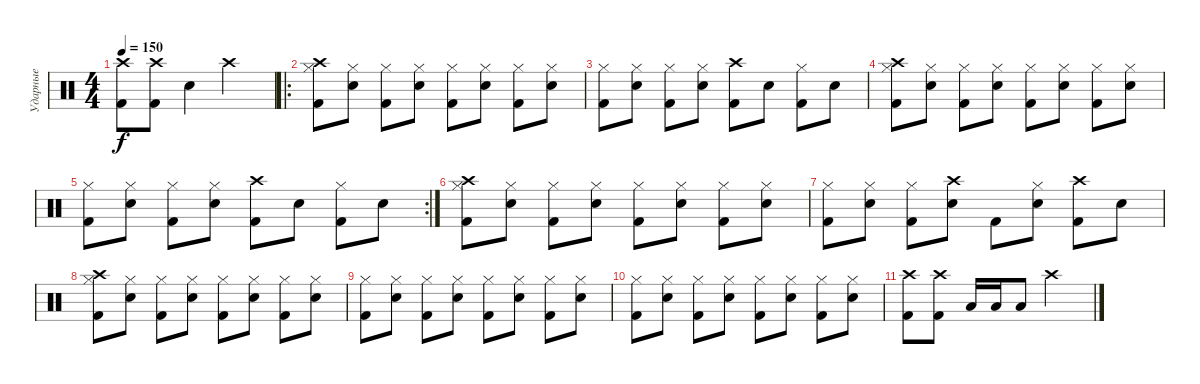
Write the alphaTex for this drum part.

\track ("Ударные" "Ударные") {instrument percussion}
\staff {score}
\articulation defaults
\ts (4 4)
\tempo 150
\clef neutral
\ks c
("Kick (hit) 2" "Crash high (hit)").8{dy f} ("Kick (hit) 2" "Crash high (hit)").8 "Snare (hit) 2".4 "Crash high (hit)".2 |
\ro
("Kick (hit) 2" "Hi-Hat (closed)" "Crash high (hit)").8 ("Snare (hit) 2" "Hi-Hat (closed)").8 ("Kick (hit) 2" "Hi-Hat (closed)").8 ("Snare (hit) 2" "Hi-Hat (closed)").8 ("Kick (hit) 2" "Hi-Hat (closed)").8 ("Snare (hit) 2" "Hi-Hat (closed)").8 ("Kick (hit) 2" "Hi-Hat (closed)").8 ("Snare (hit) 2" "Hi-Hat (closed)").8 |
("Kick (hit) 2" "Hi-Hat (closed)").8 ("Snare (hit) 2" "Hi-Hat (closed)").8 ("Kick (hit) 2" "Hi-Hat (closed)").8 ("Snare (hit) 2" "Hi-Hat (closed)").8 ("Kick (hit) 2" "Crash high (hit)").8 "Snare (hit) 2".8 ("Kick (hit) 2" "Hi-Hat (closed)").8 "Snare (hit) 2".8 |
("Kick (hit) 2" "Hi-Hat (closed)" "Crash high (hit)").8 ("Snare (hit) 2" "Hi-Hat (closed)").8 ("Kick (hit) 2" "Hi-Hat (closed)").8 ("Snare (hit) 2" "Hi-Hat (closed)").8 ("Kick (hit) 2" "Hi-Hat (closed)").8 ("Snare (hit) 2" "Hi-Hat (closed)").8 ("Kick (hit) 2" "Hi-Hat (closed)").8 ("Snare (hit) 2" "Hi-Hat (closed)").8 |
\rc 2
("Kick (hit) 2" "Hi-Hat (closed)").8 ("Snare (hit) 2" "Hi-Hat (closed)").8 ("Kick (hit) 2" "Hi-Hat (closed)").8 ("Snare (hit) 2" "Hi-Hat (closed)").8 ("Kick (hit) 2" "Crash high (hit)").8 "Snare (hit) 2".8 ("Kick (hit) 2" "Hi-Hat (closed)").8 "Snare (hit) 2".8 |
("Kick (hit) 2" "Hi-Hat (closed)" "Crash high (hit)").8 ("Snare (hit) 2" "Hi-Hat (closed)").8 ("Kick (hit) 2" "Hi-Hat (closed)").8 ("Snare (hit) 2" "Hi-Hat (closed)").8 ("Kick (hit) 2" "Hi-Hat (closed)").8 ("Snare (hit) 2" "Hi-Hat (closed)").8 ("Kick (hit) 2" "Hi-Hat (closed)").8 ("Snare (hit) 2" "Hi-Hat (closed)").8 |
("Kick (hit) 2" "Hi-Hat (closed)").8 ("Snare (hit) 2" "Hi-Hat (closed)").8 ("Kick (hit) 2" "Hi-Hat (closed)").8 ("Snare (hit) 2" "Crash high (hit)").8 "Kick (hit) 2".8 ("Snare (hit) 2" "Hi-Hat (closed)").8 ("Kick (hit) 2" "Crash high (hit)").8 "Snare (hit) 2".8 |
("Kick (hit) 2" "Hi-Hat (closed)" "Crash high (hit)").8 ("Snare (hit) 2" "Hi-Hat (closed)").8 ("Kick (hit) 2" "Hi-Hat (closed)").8 ("Snare (hit) 2" "Hi-Hat (closed)").8 ("Kick (hit) 2" "Hi-Hat (closed)").8 ("Snare (hit) 2" "Hi-Hat (closed)").8 ("Kick (hit) 2" "Hi-Hat (closed)").8 ("Snare (hit) 2" "Hi-Hat (closed)").8 |
("Kick (hit) 2" "Hi-Hat (closed)").8 ("Snare (hit) 2" "Hi-Hat (closed)").8 ("Kick (hit) 2" "Hi-Hat (closed)").8 ("Snare (hit) 2" "Hi-Hat (closed)").8 ("Kick (hit) 2" "Hi-Hat (closed)").8 ("Snare (hit) 2" "Hi-Hat (closed)").8 ("Kick (hit) 2" "Hi-Hat (closed)").8 ("Snare (hit) 2" "Hi-Hat (closed)").8 |
("Kick (hit) 2" "Hi-Hat (closed)").8 ("Snare (hit) 2" "Hi-Hat (closed)").8 ("Kick (hit) 2" "Hi-Hat (closed)").8 ("Snare (hit) 2" "Hi-Hat (closed)").8 ("Kick (hit) 2" "Hi-Hat (closed)").8 ("Snare (hit) 2" "Hi-Hat (closed)").8 ("Kick (hit) 2" "Hi-Hat (closed)").8 ("Snare (hit) 2" "Hi-Hat (closed)").8 |
("Kick (hit) 2" "Crash high (hit)").8 ("Kick (hit) 2" "Crash high (hit)").8 "Low Tom (hit)".16 "Low Tom (hit)".16 "Low Tom (hit)".8 "Crash high (hit)".2
